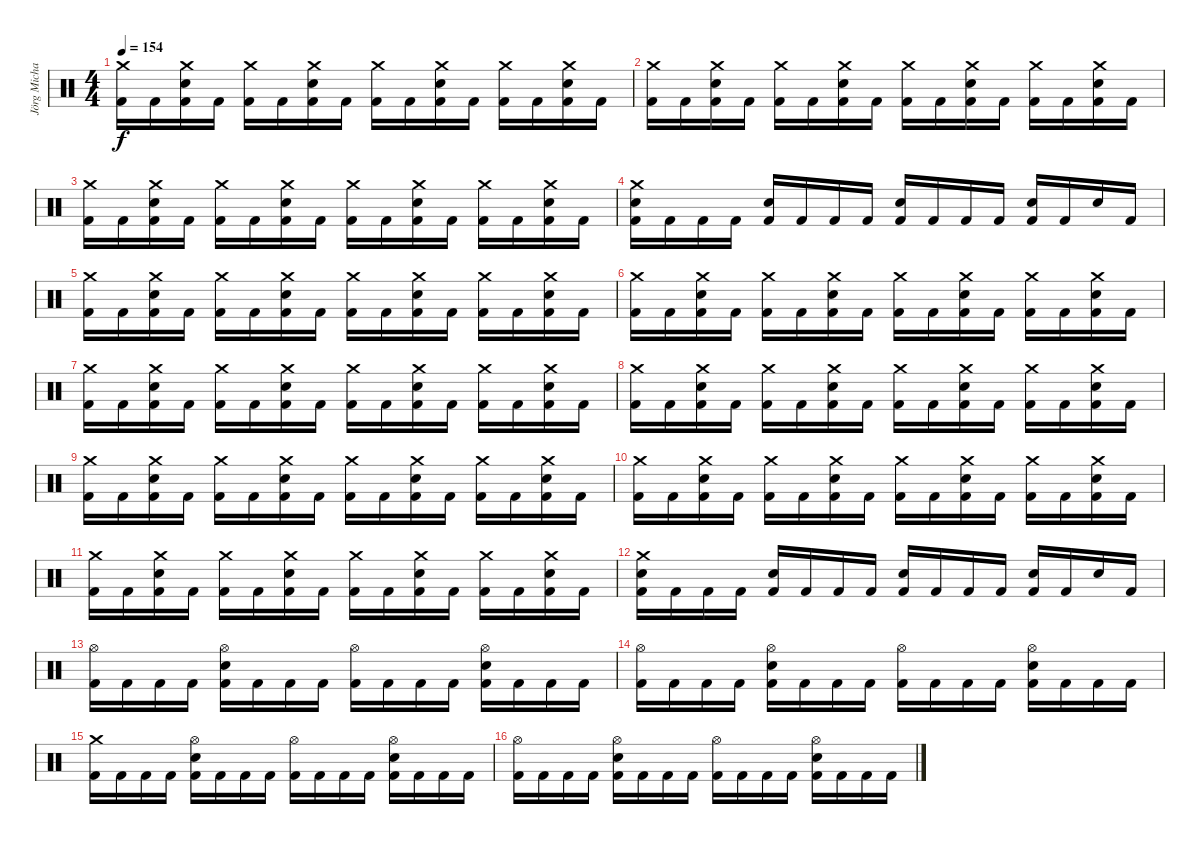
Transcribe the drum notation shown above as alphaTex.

\track ("Jörg Michael" "Jörg Micha") {instrument percussion}
\staff {score}
\articulation defaults
\ts (4 4)
\tempo 154
\clef neutral
\ks c
("Crash medium (hit)" "Kick (hit) 2").16{dy f} "Kick (hit) 2".16 ("Snare (hit) 2" "Crash medium (hit)" "Kick (hit) 2").16 "Kick (hit) 2".16 ("Crash medium (hit)" "Kick (hit) 2").16 "Kick (hit) 2".16 ("Snare (hit) 2" "Crash medium (hit)" "Kick (hit) 2").16 "Kick (hit) 2".16 ("Crash medium (hit)" "Kick (hit) 2").16 "Kick (hit) 2".16 ("Snare (hit) 2" "Crash medium (hit)" "Kick (hit) 2").16 "Kick (hit) 2".16 ("Crash medium (hit)" "Kick (hit) 2").16 "Kick (hit) 2".16 ("Snare (hit) 2" "Crash medium (hit)" "Kick (hit) 2").16 "Kick (hit) 2".16 |
("Crash medium (hit)" "Kick (hit) 2").16 "Kick (hit) 2".16 ("Snare (hit) 2" "Crash medium (hit)" "Kick (hit) 2").16 "Kick (hit) 2".16 ("Crash medium (hit)" "Kick (hit) 2").16 "Kick (hit) 2".16 ("Snare (hit) 2" "Crash medium (hit)" "Kick (hit) 2").16 "Kick (hit) 2".16 ("Crash medium (hit)" "Kick (hit) 2").16 "Kick (hit) 2".16 ("Snare (hit) 2" "Crash medium (hit)" "Kick (hit) 2").16 "Kick (hit) 2".16 ("Crash medium (hit)" "Kick (hit) 2").16 "Kick (hit) 2".16 ("Snare (hit) 2" "Crash medium (hit)" "Kick (hit) 2").16 "Kick (hit) 2".16 |
("Crash medium (hit)" "Kick (hit) 2").16 "Kick (hit) 2".16 ("Snare (hit) 2" "Crash medium (hit)" "Kick (hit) 2").16 "Kick (hit) 2".16 ("Crash medium (hit)" "Kick (hit) 2").16 "Kick (hit) 2".16 ("Snare (hit) 2" "Crash medium (hit)" "Kick (hit) 2").16 "Kick (hit) 2".16 ("Crash medium (hit)" "Kick (hit) 2").16 "Kick (hit) 2".16 ("Snare (hit) 2" "Crash medium (hit)" "Kick (hit) 2").16 "Kick (hit) 2".16 ("Crash medium (hit)" "Kick (hit) 2").16 "Kick (hit) 2".16 ("Snare (hit) 2" "Crash medium (hit)" "Kick (hit) 2").16 "Kick (hit) 2".16 |
("Snare (hit) 2" "Crash medium (hit)" "Kick (hit) 2").16 "Kick (hit) 2".16 "Kick (hit) 2".16 "Kick (hit) 2".16 ("Snare (hit) 2" "Kick (hit) 2").16 "Kick (hit) 2".16 "Kick (hit) 2".16 "Kick (hit) 2".16 ("Snare (hit) 2" "Kick (hit) 2").16 "Kick (hit) 2".16 "Kick (hit) 2".16 "Kick (hit) 2".16 ("Snare (hit) 2" "Kick (hit) 2").16 "Kick (hit) 2".16 "Snare (hit) 2".16 "Kick (hit) 2".16 |
("Crash medium (hit)" "Kick (hit) 2").16 "Kick (hit) 2".16 ("Snare (hit) 2" "Crash medium (hit)" "Kick (hit) 2").16 "Kick (hit) 2".16 ("Crash medium (hit)" "Kick (hit) 2").16 "Kick (hit) 2".16 ("Snare (hit) 2" "Crash medium (hit)" "Kick (hit) 2").16 "Kick (hit) 2".16 ("Crash medium (hit)" "Kick (hit) 2").16 "Kick (hit) 2".16 ("Snare (hit) 2" "Crash medium (hit)" "Kick (hit) 2").16 "Kick (hit) 2".16 ("Crash medium (hit)" "Kick (hit) 2").16 "Kick (hit) 2".16 ("Snare (hit) 2" "Crash medium (hit)" "Kick (hit) 2").16 "Kick (hit) 2".16 |
("Crash medium (hit)" "Kick (hit) 2").16 "Kick (hit) 2".16 ("Snare (hit) 2" "Crash medium (hit)" "Kick (hit) 2").16 "Kick (hit) 2".16 ("Crash medium (hit)" "Kick (hit) 2").16 "Kick (hit) 2".16 ("Snare (hit) 2" "Crash medium (hit)" "Kick (hit) 2").16 "Kick (hit) 2".16 ("Crash medium (hit)" "Kick (hit) 2").16 "Kick (hit) 2".16 ("Snare (hit) 2" "Crash medium (hit)" "Kick (hit) 2").16 "Kick (hit) 2".16 ("Crash medium (hit)" "Kick (hit) 2").16 "Kick (hit) 2".16 ("Snare (hit) 2" "Crash medium (hit)" "Kick (hit) 2").16 "Kick (hit) 2".16 |
("Crash medium (hit)" "Kick (hit) 2").16 "Kick (hit) 2".16 ("Snare (hit) 2" "Crash medium (hit)" "Kick (hit) 2").16 "Kick (hit) 2".16 ("Crash medium (hit)" "Kick (hit) 2").16 "Kick (hit) 2".16 ("Snare (hit) 2" "Crash medium (hit)" "Kick (hit) 2").16 "Kick (hit) 2".16 ("Crash medium (hit)" "Kick (hit) 2").16 "Kick (hit) 2".16 ("Snare (hit) 2" "Crash medium (hit)" "Kick (hit) 2").16 "Kick (hit) 2".16 ("Crash medium (hit)" "Kick (hit) 2").16 "Kick (hit) 2".16 ("Snare (hit) 2" "Crash medium (hit)" "Kick (hit) 2").16 "Kick (hit) 2".16 |
("Crash medium (hit)" "Kick (hit) 2").16 "Kick (hit) 2".16 ("Snare (hit) 2" "Crash medium (hit)" "Kick (hit) 2").16 "Kick (hit) 2".16 ("Crash medium (hit)" "Kick (hit) 2").16 "Kick (hit) 2".16 ("Snare (hit) 2" "Crash medium (hit)" "Kick (hit) 2").16 "Kick (hit) 2".16 ("Crash medium (hit)" "Kick (hit) 2").16 "Kick (hit) 2".16 ("Snare (hit) 2" "Crash medium (hit)" "Kick (hit) 2").16 "Kick (hit) 2".16 ("Crash medium (hit)" "Kick (hit) 2").16 "Kick (hit) 2".16 ("Snare (hit) 2" "Crash medium (hit)" "Kick (hit) 2").16 "Kick (hit) 2".16 |
("Crash medium (hit)" "Kick (hit) 2").16 "Kick (hit) 2".16 ("Snare (hit) 2" "Crash medium (hit)" "Kick (hit) 2").16 "Kick (hit) 2".16 ("Crash medium (hit)" "Kick (hit) 2").16 "Kick (hit) 2".16 ("Snare (hit) 2" "Crash medium (hit)" "Kick (hit) 2").16 "Kick (hit) 2".16 ("Crash medium (hit)" "Kick (hit) 2").16 "Kick (hit) 2".16 ("Snare (hit) 2" "Crash medium (hit)" "Kick (hit) 2").16 "Kick (hit) 2".16 ("Crash medium (hit)" "Kick (hit) 2").16 "Kick (hit) 2".16 ("Snare (hit) 2" "Crash medium (hit)" "Kick (hit) 2").16 "Kick (hit) 2".16 |
("Crash medium (hit)" "Kick (hit) 2").16 "Kick (hit) 2".16 ("Snare (hit) 2" "Crash medium (hit)" "Kick (hit) 2").16 "Kick (hit) 2".16 ("Crash medium (hit)" "Kick (hit) 2").16 "Kick (hit) 2".16 ("Snare (hit) 2" "Crash medium (hit)" "Kick (hit) 2").16 "Kick (hit) 2".16 ("Crash medium (hit)" "Kick (hit) 2").16 "Kick (hit) 2".16 ("Snare (hit) 2" "Crash medium (hit)" "Kick (hit) 2").16 "Kick (hit) 2".16 ("Crash medium (hit)" "Kick (hit) 2").16 "Kick (hit) 2".16 ("Snare (hit) 2" "Crash medium (hit)" "Kick (hit) 2").16 "Kick (hit) 2".16 |
("Crash medium (hit)" "Kick (hit) 2").16 "Kick (hit) 2".16 ("Snare (hit) 2" "Crash medium (hit)" "Kick (hit) 2").16 "Kick (hit) 2".16 ("Crash medium (hit)" "Kick (hit) 2").16 "Kick (hit) 2".16 ("Snare (hit) 2" "Crash medium (hit)" "Kick (hit) 2").16 "Kick (hit) 2".16 ("Crash medium (hit)" "Kick (hit) 2").16 "Kick (hit) 2".16 ("Snare (hit) 2" "Crash medium (hit)" "Kick (hit) 2").16 "Kick (hit) 2".16 ("Crash medium (hit)" "Kick (hit) 2").16 "Kick (hit) 2".16 ("Snare (hit) 2" "Crash medium (hit)" "Kick (hit) 2").16 "Kick (hit) 2".16 |
("Snare (hit) 2" "Crash medium (hit)" "Kick (hit) 2").16 "Kick (hit) 2".16 "Kick (hit) 2".16 "Kick (hit) 2".16 ("Snare (hit) 2" "Kick (hit) 2").16 "Kick (hit) 2".16 "Kick (hit) 2".16 "Kick (hit) 2".16 ("Snare (hit) 2" "Kick (hit) 2").16 "Kick (hit) 2".16 "Kick (hit) 2".16 "Kick (hit) 2".16 ("Snare (hit) 2" "Kick (hit) 2").16 "Kick (hit) 2".16 "Snare (hit) 2".16 "Kick (hit) 2".16 |
("Hi-Hat (open)" "Kick (hit) 2").16 "Kick (hit) 2".16 "Kick (hit) 2".16 "Kick (hit) 2".16 ("Snare (hit) 2" "Hi-Hat (open)" "Kick (hit) 2").16 "Kick (hit) 2".16 "Kick (hit) 2".16 "Kick (hit) 2".16 ("Hi-Hat (open)" "Kick (hit) 2").16 "Kick (hit) 2".16 "Kick (hit) 2".16 "Kick (hit) 2".16 ("Snare (hit) 2" "Hi-Hat (open)" "Kick (hit) 2").16 "Kick (hit) 2".16 "Kick (hit) 2".16 "Kick (hit) 2".16 |
("Hi-Hat (open)" "Kick (hit) 2").16 "Kick (hit) 2".16 "Kick (hit) 2".16 "Kick (hit) 2".16 ("Snare (hit) 2" "Hi-Hat (open)" "Kick (hit) 2").16 "Kick (hit) 2".16 "Kick (hit) 2".16 "Kick (hit) 2".16 ("Hi-Hat (open)" "Kick (hit) 2").16 "Kick (hit) 2".16 "Kick (hit) 2".16 "Kick (hit) 2".16 ("Snare (hit) 2" "Hi-Hat (open)" "Kick (hit) 2").16 "Kick (hit) 2".16 "Kick (hit) 2".16 "Kick (hit) 2".16 |
("Crash medium (hit)" "Kick (hit) 2").16 "Kick (hit) 2".16 "Kick (hit) 2".16 "Kick (hit) 2".16 ("Snare (hit) 2" "Hi-Hat (open)" "Kick (hit) 2").16 "Kick (hit) 2".16 "Kick (hit) 2".16 "Kick (hit) 2".16 ("Hi-Hat (open)" "Kick (hit) 2").16 "Kick (hit) 2".16 "Kick (hit) 2".16 "Kick (hit) 2".16 ("Snare (hit) 2" "Hi-Hat (open)" "Kick (hit) 2").16 "Kick (hit) 2".16 "Kick (hit) 2".16 "Kick (hit) 2".16 |
("Hi-Hat (open)" "Kick (hit) 2").16 "Kick (hit) 2".16 "Kick (hit) 2".16 "Kick (hit) 2".16 ("Snare (hit) 2" "Hi-Hat (open)" "Kick (hit) 2").16 "Kick (hit) 2".16 "Kick (hit) 2".16 "Kick (hit) 2".16 ("Hi-Hat (open)" "Kick (hit) 2").16 "Kick (hit) 2".16 "Kick (hit) 2".16 "Kick (hit) 2".16 ("Snare (hit) 2" "Hi-Hat (open)" "Kick (hit) 2").16 "Kick (hit) 2".16 "Kick (hit) 2".16 "Kick (hit) 2".16
